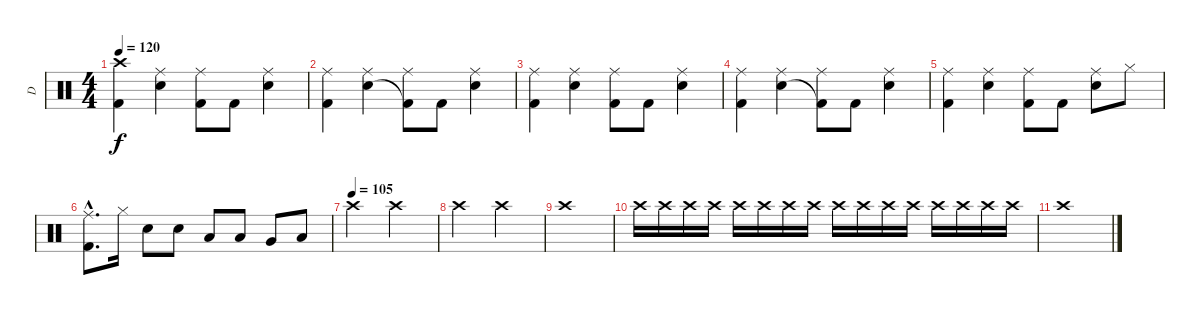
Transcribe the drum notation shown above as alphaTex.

\track ("D" "D") {instrument percussion}
\staff {score}
\articulation defaults
\ts (4 4)
\tempo 120
\clef neutral
\ks c
("Crash high (hit)" "Kick (hit) 2").4{dy f} ("Ride (middle)" "Snare (hit) 2").4 ("Ride (middle)" "Kick (hit) 2").8 "Kick (hit) 2".8 ("Ride (middle)" "Snare (hit) 2").4 |
("Ride (middle)" "Kick (hit) 2").4 ("Ride (middle)" "Snare (hit) 2").4 ("Ride (middle)" "Kick (hit) 2"{t}).8 "Kick (hit) 2".8 ("Ride (middle)" "Snare (hit) 2").4 |
("Ride (middle)" "Kick (hit) 2").4 ("Ride (middle)" "Snare (hit) 2").4 ("Ride (middle)" "Kick (hit) 2").8 "Kick (hit) 2".8 ("Ride (middle)" "Snare (hit) 2").4 |
("Ride (middle)" "Kick (hit) 2").4 ("Ride (middle)" "Snare (hit) 2").4 ("Ride (middle)" "Kick (hit) 2"{t}).8 "Kick (hit) 2".8 ("Ride (middle)" "Snare (hit) 2").4 |
("Ride (middle)" "Kick (hit) 2").4 ("Ride (middle)" "Snare (hit) 2").4 ("Ride (middle)" "Kick (hit) 2").8 "Kick (hit) 2".8 ("Ride (middle)" "Snare (hit) 2").8 "Hi-Hat (closed)".8 |
("Ride (middle)"{hac} "Kick (hit) 2"{hac}).8{d} "Hi-Hat (closed)".16 "Snare (hit) 2".8 "Snare (hit) 2".8 "Low Tom (hit)".8 "Low Tom (hit)".8 "Very Low Tom (hit)".8 "Low Floor Tom (hit)".8 |
\tempo (105)
"Crash high (hit)".2 "Crash high (hit)".2 |
"Crash high (hit)".2 "Crash high (hit)".2 |
"Crash high (hit)".1 |
"Crash high (hit)".16{volume 1} "Crash high (hit)".16 "Crash high (hit)".16{volume 4} "Crash high (hit)".16 "Crash high (hit)".16{volume 6} "Crash high (hit)".16 "Crash high (hit)".16{volume 8} "Crash high (hit)".16 "Crash high (hit)".16{volume 10} "Crash high (hit)".16 "Crash high (hit)".16{volume 12} "Crash high (hit)".16 "Crash high (hit)".16{volume 14} "Crash high (hit)".16 "Crash high (hit)".16{volume 16} "Crash high (hit)".16 |
"Crash high (hit)".1
